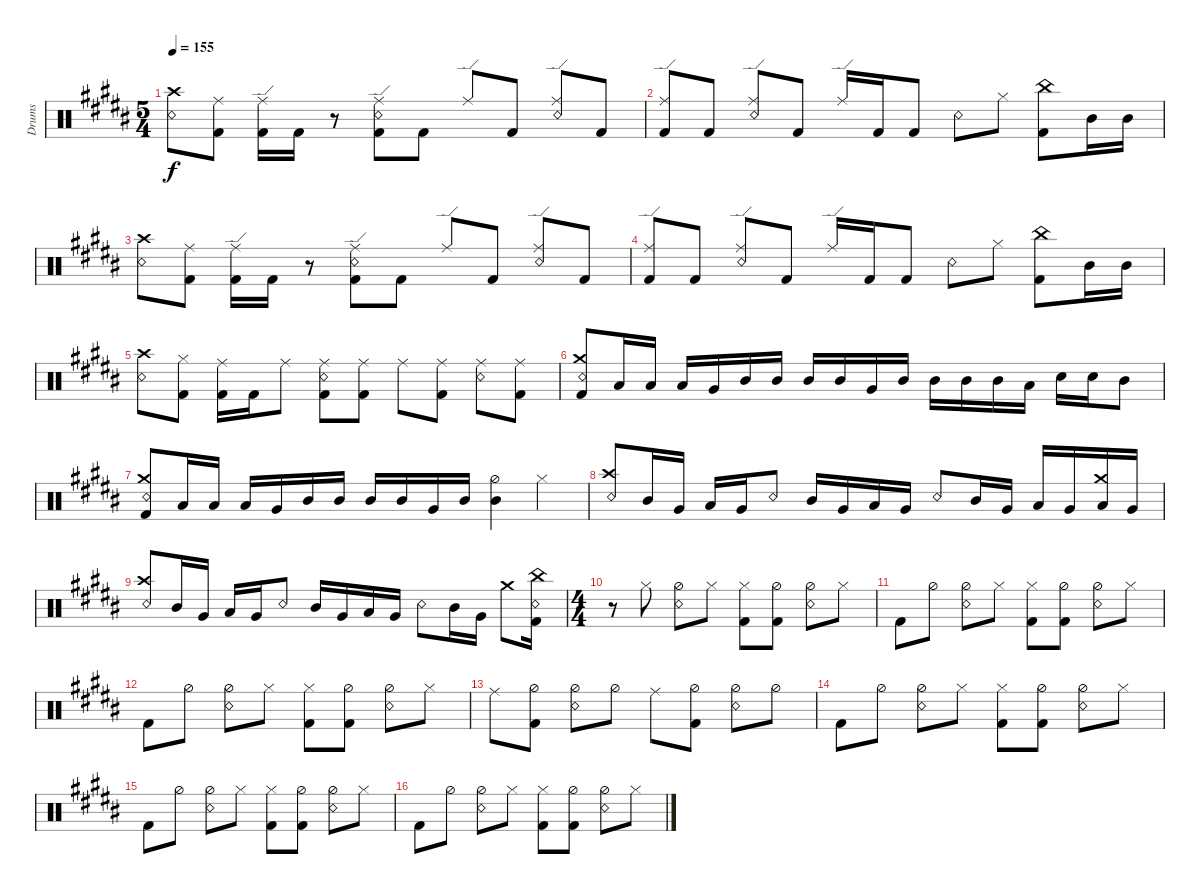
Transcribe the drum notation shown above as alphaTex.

\bracketExtendMode groupsimilarinstruments
\otherSystemsTrackNameOrientation horizontal
\track ("Drumkit" "Drums") {instrument percussion}
\staff {score}
\articulation defaults
\ts (5 4)
\tempo 155
\clef neutral
\ks b
("Crash high (hit)"{acc bb} "Snare (rim shot)"{acc bb}).8{dy f beam Down} ("Kick (hit) 2"{acc bb} "Ride (middle)"{acc bb}).8{beam Down} ("Kick (hit) 2"{acc bb} "Ride (edge)"{acc bb}).16{beam Down} "Kick (hit) 2"{acc bb}.16{beam Down} r.8{beam Down} ("Kick (hit) 2"{acc bb} "Snare (rim shot)"{acc bb} "Ride (edge)"{acc bb}).8{beam Down} "Kick (hit) 2"{acc bb}.8{beam Down} "Ride (edge)"{acc bb}.8{beam Up} "Kick (hit) 2"{acc bb}.8{beam Up} ("Snare (rim shot)"{acc bb} "Ride (edge)"{acc bb}).8{beam Up} "Kick (hit) 2"{acc bb}.8{beam Up} |
("Kick (hit) 2"{acc bb} "Ride (edge)"{acc bb}).8{beam Up} "Kick (hit) 2"{acc bb}.8{beam Up} ("Snare (rim shot)"{acc bb} "Ride (edge)"{acc bb}).8{beam Up} "Kick (hit) 2"{acc bb}.8{beam Up} "Ride (edge)"{acc bb}.16{beam Up} "Kick (hit) 2"{acc bb}.16{beam Up} "Kick (hit) 2"{acc bb}.8{beam Up} "Snare (rim shot)"{acc bb}.8{beam Down} "Hi-Hat (closed)"{acc bb}.8{beam Down} ("Kick (hit) 2"{acc bb} "China (hit)"{acc bb}).8{beam Down} "Mid Tom (hit)"{acc bb}.16{beam Down} "Mid Tom (hit)"{acc bb}.16{beam Down} |
("Crash high (hit)"{acc bb} "Snare (rim shot)"{acc bb}).8{beam Down} ("Kick (hit) 2"{acc bb} "Ride (middle)"{acc bb}).8{beam Down} ("Kick (hit) 2"{acc bb} "Ride (edge)"{acc bb}).16{beam Down} "Kick (hit) 2"{acc bb}.16{beam Down} r.8{beam Down} ("Kick (hit) 2"{acc bb} "Snare (rim shot)"{acc bb} "Ride (edge)"{acc bb}).8{beam Down} "Kick (hit) 2"{acc bb}.8{beam Down} "Ride (edge)"{acc bb}.8{beam Up} "Kick (hit) 2"{acc bb}.8{beam Up} ("Snare (rim shot)"{acc bb} "Ride (edge)"{acc bb}).8{beam Up} "Kick (hit) 2"{acc bb}.8{beam Up} |
("Kick (hit) 2"{acc bb} "Ride (edge)"{acc bb}).8{beam Up} "Kick (hit) 2"{acc bb}.8{beam Up} ("Snare (rim shot)"{acc bb} "Ride (edge)"{acc bb}).8{beam Up} "Kick (hit) 2"{acc bb}.8{beam Up} "Ride (edge)"{acc bb}.16{beam Up} "Kick (hit) 2"{acc bb}.16{beam Up} "Kick (hit) 2"{acc bb}.8{beam Up} "Snare (rim shot)"{acc bb}.8{beam Down} "Hi-Hat (closed)"{acc bb}.8{beam Down} ("Kick (hit) 2"{acc bb} "China (hit)"{acc bb}).8{beam Down} "Mid Tom (hit)"{acc bb}.16{beam Down} "Mid Tom (hit)"{acc bb}.16{beam Down} |
("Crash high (hit)"{acc bb} "Snare (rim shot)"{acc bb}).8{beam Down} ("Kick (hit) 2"{acc bb} "Hi-Hat (closed)"{acc bb}).8{beam Down} ("Kick (hit) 2"{acc bb} "Ride (middle)"{acc bb}).16{beam Down} "Kick (hit) 2"{acc bb}.16{beam Down} "Ride (middle)"{acc bb}.8{beam Down} ("Kick (hit) 2"{acc bb} "Snare (rim shot)"{acc bb} "Ride (middle)"{acc bb}).8{beam Down} ("Kick (hit) 2"{acc bb} "Ride (middle)"{acc bb}).8{beam Down} "Ride (middle)"{acc bb}.8{beam Down} ("Kick (hit) 2"{acc bb} "Ride (middle)"{acc bb}).8{beam Down} ("Snare (rim shot)"{acc bb} "Ride (middle)"{acc bb}).8{beam Down} ("Ride (middle)"{acc bb} "Kick (hit) 2"{acc bb}).8{beam Down} |
("Crash medium (hit)"{acc bb} "Kick (hit) 2"{acc bb} "Snare (rim shot)"{acc bb}).8{beam Up} "Low Tom (hit)"{acc bb}.16{beam Up} "Low Tom (hit)"{acc bb}.16{beam Up} "Low Tom (hit)"{acc bb}.16{beam Up} "Very Low Tom (hit)"{acc bb}.16{beam Up} "Mid Tom (hit)"{acc bb}.16{beam Up} "Mid Tom (hit)"{acc bb}.16{beam Up} "Mid Tom (hit)"{acc bb}.16{beam Up} "Mid Tom (hit)"{acc bb}.16{beam Up} "Very Low Tom (hit)"{acc bb}.16{beam Up} "Mid Tom (hit)"{acc bb}.16{beam Up} "Mid Tom (hit)"{acc bb}.16{beam Down} "Mid Tom (hit)"{acc bb}.16{beam Down} "Mid Tom (hit)"{acc bb}.16{beam Down} "Low Tom (hit)"{acc bb}.16{beam Down} "Snare (hit) 2"{acc bb}.16{beam Down} "Snare (hit) 2"{acc bb}.16{beam Down} "Mid Tom (hit)"{acc bb}.8{beam Down} |
("Crash medium (hit)"{acc bb} "Kick (hit) 2"{acc bb} "Snare (rim shot)"{acc bb}).8{beam Up} "Low Tom (hit)"{acc bb}.16{beam Up} "Low Tom (hit)"{acc bb}.16{beam Up} "Low Tom (hit)"{acc bb}.16{beam Up} "Very Low Tom (hit)"{acc bb}.16{beam Up} "Mid Tom (hit)"{acc bb}.16{beam Up} "Mid Tom (hit)"{acc bb}.16{beam Up} "Mid Tom (hit)"{acc bb}.16{beam Up} "Mid Tom (hit)"{acc bb}.16{beam Up} "Very Low Tom (hit)"{acc bb}.16{beam Up} "Mid Tom (hit)"{acc bb}.16{beam Up} ("Mid Tom (hit)"{acc bb} "Hi-Hat (half)"{acc bb}).4{beam Down} "Hi-Hat (closed)"{acc bb}.4{beam Down} |
("Snare (rim shot)"{acc bb} "Crash high (hit)"{acc bb}).8{beam Up} "Mid Tom (hit)"{acc bb}.16{beam Up} "Very Low Tom (hit)"{acc bb}.16{beam Up} "Low Tom (hit)"{acc bb}.16{beam Up} "Very Low Tom (hit)"{acc bb}.16{beam Up} "Snare (rim shot)"{acc bb}.8{beam Up} "Mid Tom (hit)"{acc bb}.16{beam Up} "Very Low Tom (hit)"{acc bb}.16{beam Up} "Low Tom (hit)"{acc bb}.16{beam Up} "Very Low Tom (hit)"{acc bb}.16{beam Up} "Snare (rim shot)"{acc bb}.8{beam Up} "Mid Tom (hit)"{acc bb}.16{beam Up} "Very Low Tom (hit)"{acc bb}.16{beam Up} "Low Tom (hit)"{acc bb}.16{beam Up} "Very Low Tom (hit)"{acc bb}.16{beam Up} ("Low Tom (hit)"{acc bb} "Crash medium (hit)"{acc bb}).16{beam Up} "Very Low Tom (hit)"{acc bb}.16{beam Up} |
("Snare (rim shot)"{acc bb} "Crash high (hit)"{acc bb}).8{beam Up} "Mid Tom (hit)"{acc bb}.16{beam Up} "Very Low Tom (hit)"{acc bb}.16{beam Up} "Low Tom (hit)"{acc bb}.16{beam Up} "Very Low Tom (hit)"{acc bb}.16{beam Up} "Snare (rim shot)"{acc bb}.8{beam Up} "Mid Tom (hit)"{acc bb}.16{beam Up} "Very Low Tom (hit)"{acc bb}.16{beam Up} "Low Tom (hit)"{acc bb}.16{beam Up} "Very Low Tom (hit)"{acc bb}.16{beam Up} "Snare (rim shot)"{acc bb}.8{beam Down} "Mid Tom (hit)"{acc bb}.16{beam Down} "Very Low Tom (hit)"{acc bb}.16{beam Down} "Crash medium (hit)"{acc bb}.8{beam Down} ("China (hit)"{acc bb} "Kick (hit) 2"{acc bb} "Snare (rim shot)"{acc bb}).16{beam Down} |
\ts (4 4)
r.8{beam Down} "Hi-Hat (closed)"{acc bb}.8{beam Down} ("Hi-Hat (half)"{acc bb} "Snare (rim shot)"{acc bb}).8{beam Down} "Hi-Hat (closed)"{acc bb}.8{beam Down} ("Kick (hit) 2"{acc bb} "Hi-Hat (closed)"{acc bb}).8{beam Down} ("Hi-Hat (half)"{acc bb} "Kick (hit) 2"{acc bb}).8{beam Down} ("Snare (rim shot)"{acc bb} "Hi-Hat (half)"{acc bb}).8{beam Down} "Hi-Hat (closed)"{acc bb}.8{beam Down} |
"Kick (hit) 2"{acc bb}.8{beam Down} "Hi-Hat (half)"{acc bb}.8{beam Down} ("Hi-Hat (half)"{acc bb} "Snare (rim shot)"{acc bb}).8{beam Down} "Hi-Hat (closed)"{acc bb}.8{beam Down} ("Kick (hit) 2"{acc bb} "Hi-Hat (closed)"{acc bb}).8{beam Down} ("Hi-Hat (half)"{acc bb} "Kick (hit) 2"{acc bb}).8{beam Down} ("Snare (rim shot)"{acc bb} "Hi-Hat (half)"{acc bb}).8{beam Down} "Hi-Hat (closed)"{acc bb}.8{beam Down} |
"Kick (hit) 2"{acc bb}.8{beam Down} "Hi-Hat (half)"{acc bb}.8{beam Down} ("Hi-Hat (half)"{acc bb} "Snare (rim shot)"{acc bb}).8{beam Down} "Hi-Hat (closed)"{acc bb}.8{beam Down} ("Kick (hit) 2"{acc bb} "Hi-Hat (closed)"{acc bb}).8{beam Down} ("Hi-Hat (half)"{acc bb} "Kick (hit) 2"{acc bb}).8{beam Down} ("Snare (rim shot)"{acc bb} "Hi-Hat (half)"{acc bb}).8{beam Down} "Hi-Hat (closed)"{acc bb}.8{beam Down} |
"Ride (middle)"{acc bb}.8{beam Down} ("Kick (hit) 2"{acc bb} "Hi-Hat (half)"{acc bb}).8{beam Down} ("Snare (rim shot)"{acc bb} "Hi-Hat (half)"{acc bb}).8{beam Down} "Hi-Hat (half)"{acc bb}.8{beam Down} "Ride (middle)"{acc bb}.8{beam Down} ("Kick (hit) 2"{acc bb} "Hi-Hat (half)"{acc bb}).8{beam Down} ("Snare (rim shot)"{acc bb} "Hi-Hat (half)"{acc bb}).8{beam Down} "Hi-Hat (half)"{acc bb}.8{beam Down} |
"Kick (hit) 2"{acc bb}.8{beam Down} "Hi-Hat (half)"{acc bb}.8{beam Down} ("Hi-Hat (half)"{acc bb} "Snare (rim shot)"{acc bb}).8{beam Down} "Hi-Hat (closed)"{acc bb}.8{beam Down} ("Kick (hit) 2"{acc bb} "Hi-Hat (closed)"{acc bb}).8{beam Down} ("Hi-Hat (half)"{acc bb} "Kick (hit) 2"{acc bb}).8{beam Down} ("Snare (rim shot)"{acc bb} "Hi-Hat (half)"{acc bb}).8{beam Down} "Hi-Hat (closed)"{acc bb}.8{beam Down} |
"Kick (hit) 2"{acc bb}.8{beam Down} "Hi-Hat (half)"{acc bb}.8{beam Down} ("Hi-Hat (half)"{acc bb} "Snare (rim shot)"{acc bb}).8{beam Down} "Hi-Hat (closed)"{acc bb}.8{beam Down} ("Kick (hit) 2"{acc bb} "Hi-Hat (closed)"{acc bb}).8{beam Down} ("Hi-Hat (half)"{acc bb} "Kick (hit) 2"{acc bb}).8{beam Down} ("Snare (rim shot)"{acc bb} "Hi-Hat (half)"{acc bb}).8{beam Down} "Hi-Hat (closed)"{acc bb}.8{beam Down} |
"Kick (hit) 2"{acc bb}.8{beam Down} "Hi-Hat (half)"{acc bb}.8{beam Down} ("Hi-Hat (half)"{acc bb} "Snare (rim shot)"{acc bb}).8{beam Down} "Hi-Hat (closed)"{acc bb}.8{beam Down} ("Kick (hit) 2"{acc bb} "Hi-Hat (closed)"{acc bb}).8{beam Down} ("Hi-Hat (half)"{acc bb} "Kick (hit) 2"{acc bb}).8{beam Down} ("Snare (rim shot)"{acc bb} "Hi-Hat (half)"{acc bb}).8{beam Down} "Hi-Hat (closed)"{acc bb}.8{beam Down}
